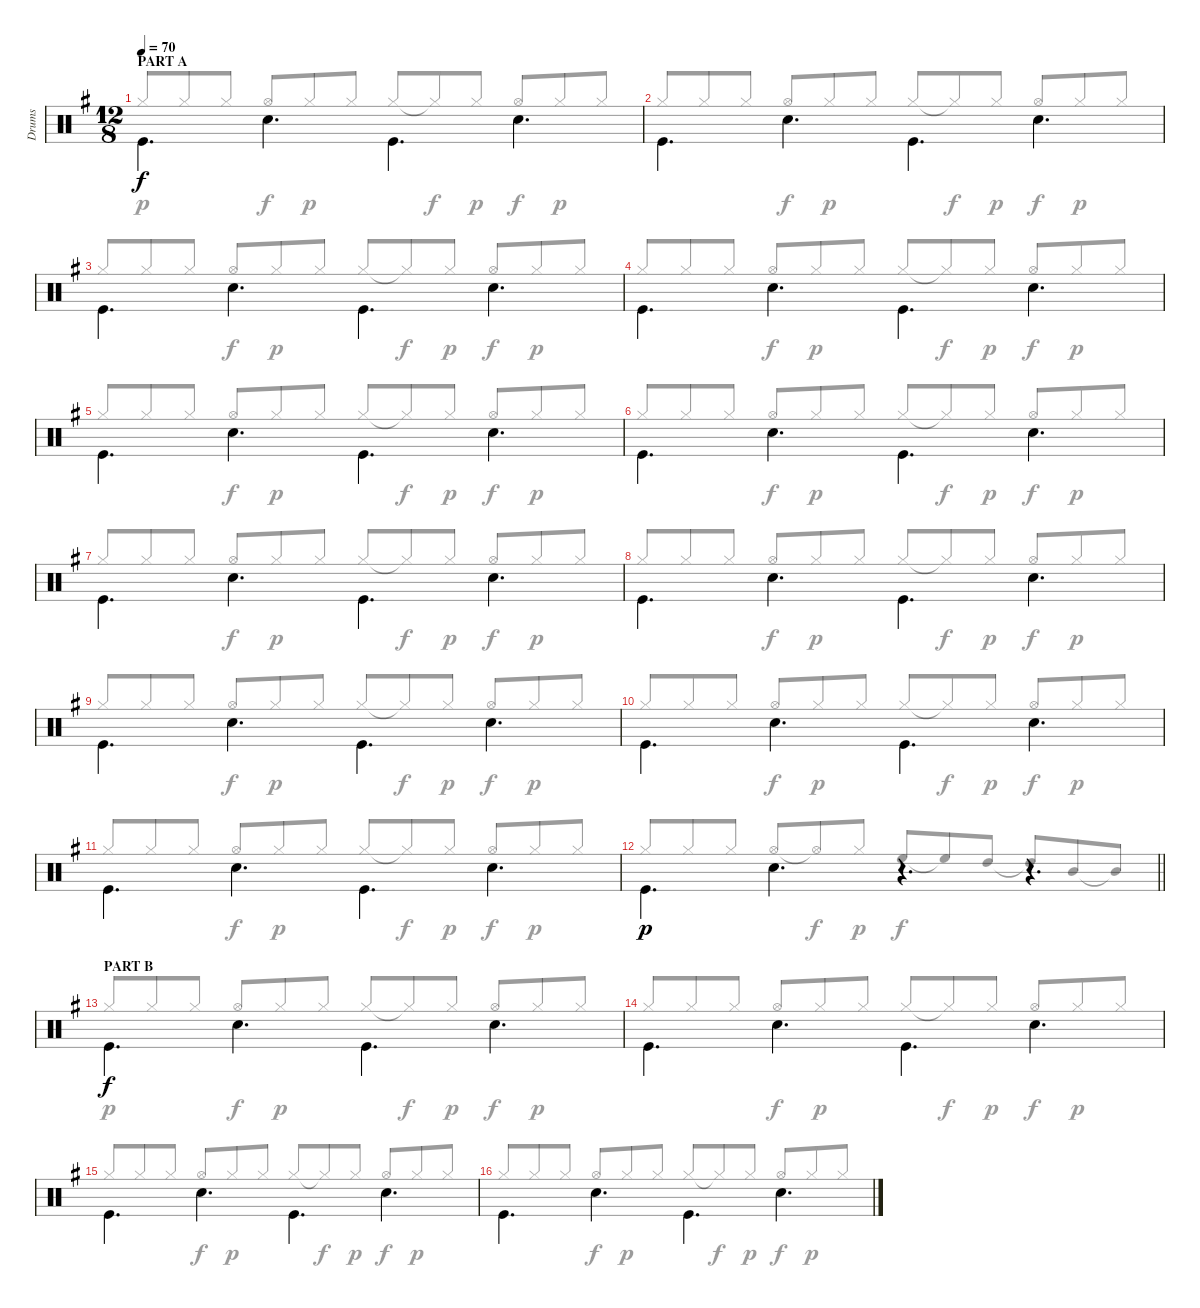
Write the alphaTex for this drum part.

\track ("Drums" "Drums") {instrument percussion}
\staff {score}
\articulation defaults
\voice
\ts (12 8)
\section ("" "PART A")
\tempo 70
\clef neutral
\ks eminor "Kick (hit)".4{d dy f beam Down} "Snare (hit) 2".4{d beam Down} "Kick (hit)".4{d beam Down} "Snare (hit) 2".4{d beam Down}
|
"Kick (hit)".4{d beam Down} "Snare (hit) 2".4{d beam Down} "Kick (hit)".4{d beam Down} "Snare (hit) 2".4{d beam Down} |
"Kick (hit)".4{d beam Down} "Snare (hit) 2".4{d beam Down} "Kick (hit)".4{d beam Down} "Snare (hit) 2".4{d beam Down} |
"Kick (hit)".4{d beam Down} "Snare (hit) 2".4{d beam Down} "Kick (hit)".4{d beam Down} "Snare (hit) 2".4{d beam Down} |
"Kick (hit)".4{d beam Down} "Snare (hit) 2".4{d beam Down} "Kick (hit)".4{d beam Down} "Snare (hit) 2".4{d beam Down} |
"Kick (hit)".4{d beam Down} "Snare (hit) 2".4{d beam Down} "Kick (hit)".4{d beam Down} "Snare (hit) 2".4{d beam Down} |
"Kick (hit)".4{d beam Down} "Snare (hit) 2".4{d beam Down} "Kick (hit)".4{d beam Down} "Snare (hit) 2".4{d beam Down} |
"Kick (hit)".4{d beam Down} "Snare (hit) 2".4{d beam Down} "Kick (hit)".4{d beam Down} "Snare (hit) 2".4{d beam Down} |
"Kick (hit)".4{d beam Down} "Snare (hit) 2".4{d beam Down} "Kick (hit)".4{d beam Down} "Snare (hit) 2".4{d beam Down} |
"Kick (hit)".4{d beam Down} "Snare (hit) 2".4{d beam Down} "Kick (hit)".4{d beam Down} "Snare (hit) 2".4{d beam Down} |
"Kick (hit)".4{d beam Down} "Snare (hit) 2".4{d beam Down} "Kick (hit)".4{d beam Down} "Snare (hit) 2".4{d beam Down} |
\barLineRight lightlight "Kick (hit)".4{d dy p beam Down} "Snare (hit) 2".4{d beam Down}
r.4{d} r.4{d} |
\section ("" "PART B")
"Kick (hit)".4{d dy f beam Down} "Snare (hit) 2".4{d beam Down} "Kick (hit)".4{d beam Down} "Snare (hit) 2".4{d beam Down} |
"Kick (hit)".4{d beam Down} "Snare (hit) 2".4{d beam Down} "Kick (hit)".4{d beam Down} "Snare (hit) 2".4{d beam Down} |
"Kick (hit)".4{d beam Down} "Snare (hit) 2".4{d beam Down} "Kick (hit)".4{d beam Down} "Snare (hit) 2".4{d beam Down} |
"Kick (hit)".4{d beam Down} "Snare (hit) 2".4{d beam Down} "Kick (hit)".4{d beam Down} "Snare (hit) 2".4{d beam Down}
\voice
\clef neutral
\ottava regular
\simile none
\ks eminor "Hi-Hat (closed)".8{dy p beam Up} "Hi-Hat (closed)".8{beam Up} "Hi-Hat (closed)".8{beam Up} "Hi-Hat (open)".8{dy f beam Up} "Hi-Hat (closed)".8{dy p beam Up} "Hi-Hat (closed)".8{beam Up} "Hi-Hat (closed)".8{beam Up} "Hi-Hat (closed)"{t}.8{dy f beam Up} "Hi-Hat (closed)".8{dy p beam Up} "Hi-Hat (open)".8{dy f beam Up} "Hi-Hat (closed)".8{dy p beam Up} "Hi-Hat (closed)".8{beam Up}
|
"Hi-Hat (closed)".8{beam Up} "Hi-Hat (closed)".8{beam Up} "Hi-Hat (closed)".8{beam Up} "Hi-Hat (open)".8{dy f beam Up} "Hi-Hat (closed)".8{dy p beam Up} "Hi-Hat (closed)".8{beam Up} "Hi-Hat (closed)".8{beam Up} "Hi-Hat (closed)"{t}.8{dy f beam Up} "Hi-Hat (closed)".8{dy p beam Up} "Hi-Hat (open)".8{dy f beam Up} "Hi-Hat (closed)".8{dy p beam Up} "Hi-Hat (closed)".8{beam Up} |
"Hi-Hat (closed)".8{beam Up} "Hi-Hat (closed)".8{beam Up} "Hi-Hat (closed)".8{beam Up} "Hi-Hat (open)".8{dy f beam Up} "Hi-Hat (closed)".8{dy p beam Up} "Hi-Hat (closed)".8{beam Up} "Hi-Hat (closed)".8{beam Up} "Hi-Hat (closed)"{t}.8{dy f beam Up} "Hi-Hat (closed)".8{dy p beam Up} "Hi-Hat (open)".8{dy f beam Up} "Hi-Hat (closed)".8{dy p beam Up} "Hi-Hat (closed)".8{beam Up} |
"Hi-Hat (closed)".8{beam Up} "Hi-Hat (closed)".8{beam Up} "Hi-Hat (closed)".8{beam Up} "Hi-Hat (open)".8{dy f beam Up} "Hi-Hat (closed)".8{dy p beam Up} "Hi-Hat (closed)".8{beam Up} "Hi-Hat (closed)".8{beam Up} "Hi-Hat (closed)"{t}.8{dy f beam Up} "Hi-Hat (closed)".8{dy p beam Up} "Hi-Hat (open)".8{dy f beam Up} "Hi-Hat (closed)".8{dy p beam Up} "Hi-Hat (closed)".8{beam Up} |
"Hi-Hat (closed)".8{beam Up} "Hi-Hat (closed)".8{beam Up} "Hi-Hat (closed)".8{beam Up} "Hi-Hat (open)".8{dy f beam Up} "Hi-Hat (closed)".8{dy p beam Up} "Hi-Hat (closed)".8{beam Up} "Hi-Hat (closed)".8{beam Up} "Hi-Hat (closed)"{t}.8{dy f beam Up} "Hi-Hat (closed)".8{dy p beam Up} "Hi-Hat (open)".8{dy f beam Up} "Hi-Hat (closed)".8{dy p beam Up} "Hi-Hat (closed)".8{beam Up} |
"Hi-Hat (closed)".8{beam Up} "Hi-Hat (closed)".8{beam Up} "Hi-Hat (closed)".8{beam Up} "Hi-Hat (open)".8{dy f beam Up} "Hi-Hat (closed)".8{dy p beam Up} "Hi-Hat (closed)".8{beam Up} "Hi-Hat (closed)".8{beam Up} "Hi-Hat (closed)"{t}.8{dy f beam Up} "Hi-Hat (closed)".8{dy p beam Up} "Hi-Hat (open)".8{dy f beam Up} "Hi-Hat (closed)".8{dy p beam Up} "Hi-Hat (closed)".8{beam Up} |
"Hi-Hat (closed)".8{beam Up} "Hi-Hat (closed)".8{beam Up} "Hi-Hat (closed)".8{beam Up} "Hi-Hat (open)".8{dy f beam Up} "Hi-Hat (closed)".8{dy p beam Up} "Hi-Hat (closed)".8{beam Up} "Hi-Hat (closed)".8{beam Up} "Hi-Hat (closed)"{t}.8{dy f beam Up} "Hi-Hat (closed)".8{dy p beam Up} "Hi-Hat (open)".8{dy f beam Up} "Hi-Hat (closed)".8{dy p beam Up} "Hi-Hat (closed)".8{beam Up} |
"Hi-Hat (closed)".8{beam Up} "Hi-Hat (closed)".8{beam Up} "Hi-Hat (closed)".8{beam Up} "Hi-Hat (open)".8{dy f beam Up} "Hi-Hat (closed)".8{dy p beam Up} "Hi-Hat (closed)".8{beam Up} "Hi-Hat (closed)".8{beam Up} "Hi-Hat (closed)"{t}.8{dy f beam Up} "Hi-Hat (closed)".8{dy p beam Up} "Hi-Hat (open)".8{dy f beam Up} "Hi-Hat (closed)".8{dy p beam Up} "Hi-Hat (closed)".8{beam Up} |
"Hi-Hat (closed)".8{beam Up} "Hi-Hat (closed)".8{beam Up} "Hi-Hat (closed)".8{beam Up} "Hi-Hat (open)".8{dy f beam Up} "Hi-Hat (closed)".8{dy p beam Up} "Hi-Hat (closed)".8{beam Up} "Hi-Hat (closed)".8{beam Up} "Hi-Hat (closed)"{t}.8{dy f beam Up} "Hi-Hat (closed)".8{dy p beam Up} "Hi-Hat (open)".8{dy f beam Up} "Hi-Hat (closed)".8{dy p beam Up} "Hi-Hat (closed)".8{beam Up} |
"Hi-Hat (closed)".8{beam Up} "Hi-Hat (closed)".8{beam Up} "Hi-Hat (closed)".8{beam Up} "Hi-Hat (open)".8{dy f beam Up} "Hi-Hat (closed)".8{dy p beam Up} "Hi-Hat (closed)".8{beam Up} "Hi-Hat (closed)".8{beam Up} "Hi-Hat (closed)"{t}.8{dy f beam Up} "Hi-Hat (closed)".8{dy p beam Up} "Hi-Hat (open)".8{dy f beam Up} "Hi-Hat (closed)".8{dy p beam Up} "Hi-Hat (closed)".8{beam Up} |
"Hi-Hat (closed)".8{beam Up} "Hi-Hat (closed)".8{beam Up} "Hi-Hat (closed)".8{beam Up} "Hi-Hat (open)".8{dy f beam Up} "Hi-Hat (closed)".8{dy p beam Up} "Hi-Hat (closed)".8{beam Up} "Hi-Hat (closed)".8{beam Up} "Hi-Hat (closed)"{t}.8{dy f beam Up} "Hi-Hat (closed)".8{dy p beam Up} "Hi-Hat (open)".8{dy f beam Up} "Hi-Hat (closed)".8{dy p beam Up} "Hi-Hat (closed)".8{beam Up} |
\barLineRight lightlight "Hi-Hat (closed)".8{beam Up} "Hi-Hat (closed)".8{beam Up} "Hi-Hat (closed)".8{beam Up} "Hi-Hat (open)".8{beam Up} "Hi-Hat (open)"{t}.8{dy f beam Up} "Hi-Hat (closed)".8{dy p beam Up} "High Floor Tom (hit)".8{dy f beam Up} "High Floor Tom (hit)"{t}.8{beam Up} "High Tom (hit)".8{beam Up} "High Tom (hit)"{t}.8{beam Up} "Mid Tom (hit)".8{beam Up} "Mid Tom (hit)"{t}.8{beam Up}
|
"Hi-Hat (closed)".8{dy p beam Up} "Hi-Hat (closed)".8{beam Up} "Hi-Hat (closed)".8{beam Up} "Hi-Hat (open)".8{dy f beam Up} "Hi-Hat (closed)".8{dy p beam Up} "Hi-Hat (closed)".8{beam Up} "Hi-Hat (closed)".8{beam Up} "Hi-Hat (closed)"{t}.8{dy f beam Up} "Hi-Hat (closed)".8{dy p beam Up} "Hi-Hat (open)".8{dy f beam Up} "Hi-Hat (closed)".8{dy p beam Up} "Hi-Hat (closed)".8{beam Up} |
"Hi-Hat (closed)".8{beam Up} "Hi-Hat (closed)".8{beam Up} "Hi-Hat (closed)".8{beam Up} "Hi-Hat (open)".8{dy f beam Up} "Hi-Hat (closed)".8{dy p beam Up} "Hi-Hat (closed)".8{beam Up} "Hi-Hat (closed)".8{beam Up} "Hi-Hat (closed)"{t}.8{dy f beam Up} "Hi-Hat (closed)".8{dy p beam Up} "Hi-Hat (open)".8{dy f beam Up} "Hi-Hat (closed)".8{dy p beam Up} "Hi-Hat (closed)".8{beam Up} |
"Hi-Hat (closed)".8{beam Up} "Hi-Hat (closed)".8{beam Up} "Hi-Hat (closed)".8{beam Up} "Hi-Hat (open)".8{dy f beam Up} "Hi-Hat (closed)".8{dy p beam Up} "Hi-Hat (closed)".8{beam Up} "Hi-Hat (closed)".8{beam Up} "Hi-Hat (closed)"{t}.8{dy f beam Up} "Hi-Hat (closed)".8{dy p beam Up} "Hi-Hat (open)".8{dy f beam Up} "Hi-Hat (closed)".8{dy p beam Up} "Hi-Hat (closed)".8{beam Up} |
"Hi-Hat (closed)".8{beam Up} "Hi-Hat (closed)".8{beam Up} "Hi-Hat (closed)".8{beam Up} "Hi-Hat (open)".8{dy f beam Up} "Hi-Hat (closed)".8{dy p beam Up} "Hi-Hat (closed)".8{beam Up} "Hi-Hat (closed)".8{beam Up} "Hi-Hat (closed)"{t}.8{dy f beam Up} "Hi-Hat (closed)".8{dy p beam Up} "Hi-Hat (open)".8{dy f beam Up} "Hi-Hat (closed)".8{dy p beam Up} "Hi-Hat (closed)".8{beam Up}
